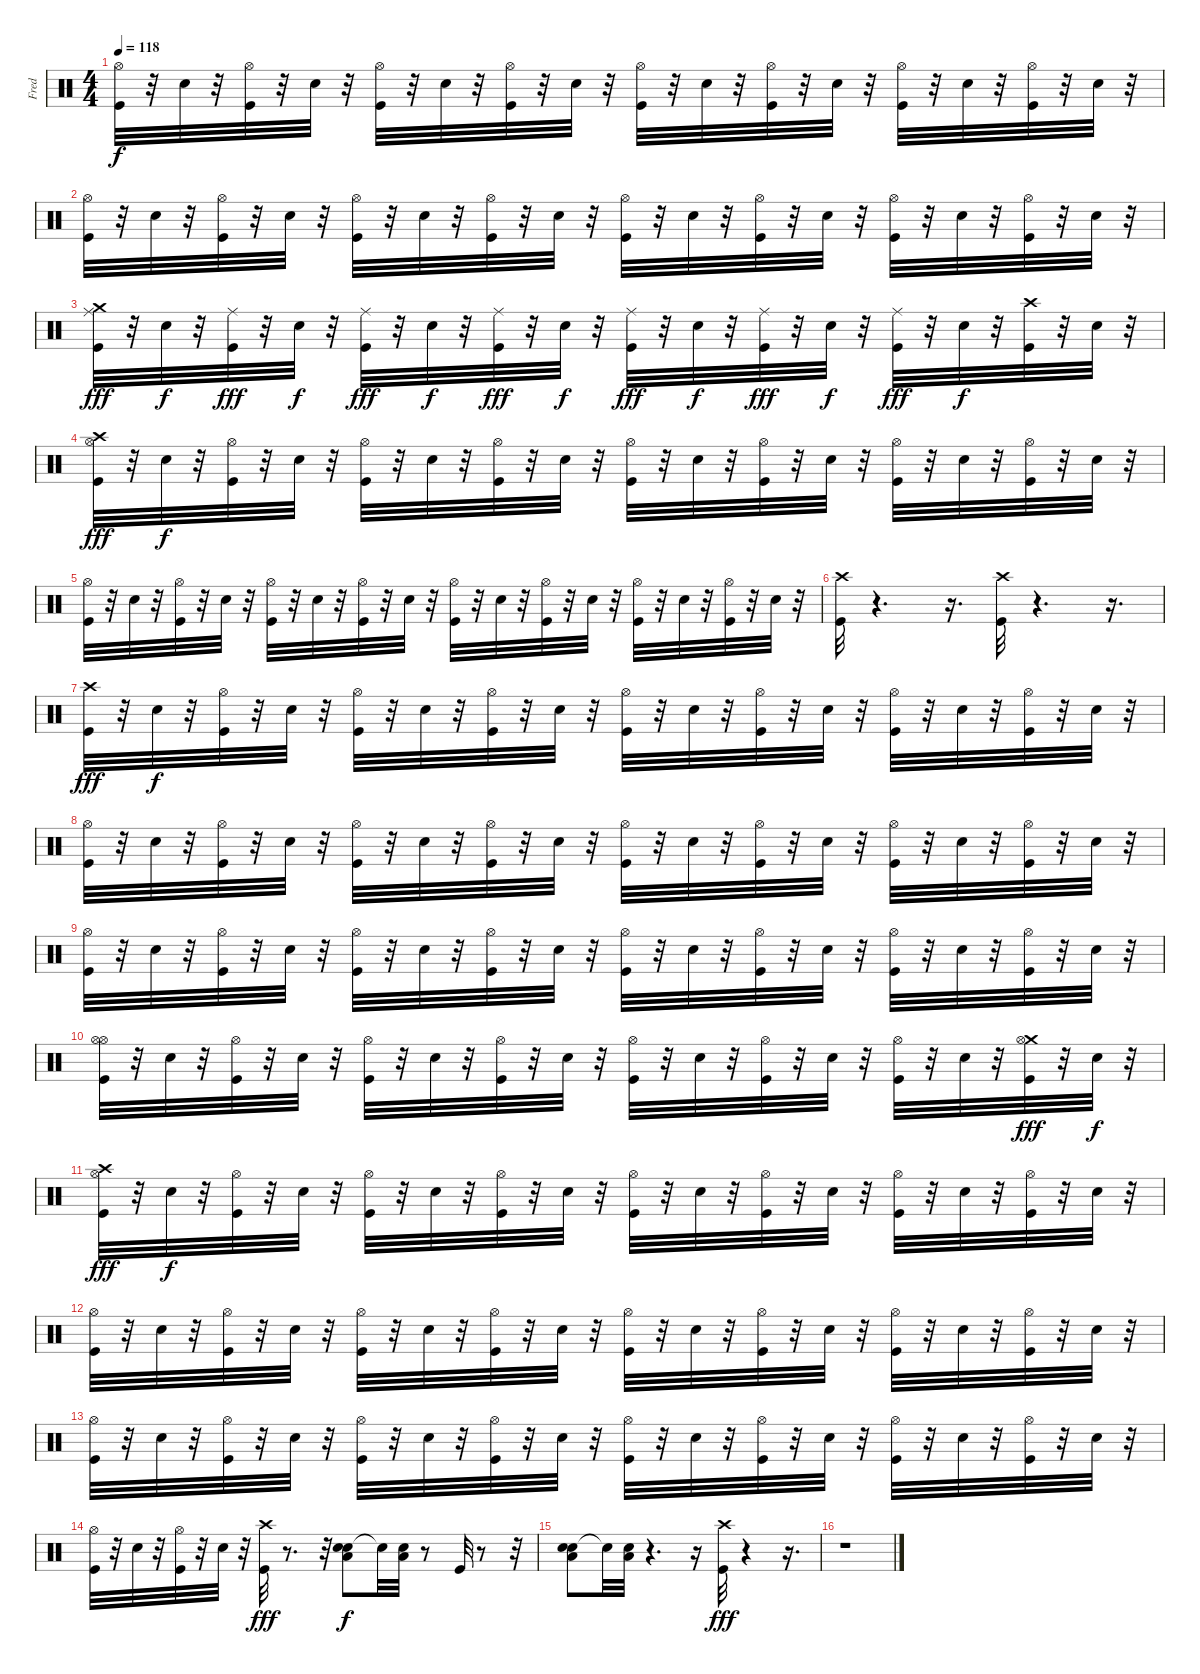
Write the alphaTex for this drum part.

\track ("Fred" "Fred") {instrument percussion}
\staff {score}
\articulation defaults
\ts (4 4)
\tempo 118
\clef neutral
\ks c
("Hi-Hat (open)" "Kick (hit)").32{dy f} r.32 "Electric Snare (hit)".32 r.32 ("Hi-Hat (open)" "Kick (hit)").32 r.32 "Electric Snare (hit)".32 r.32 ("Hi-Hat (open)" "Kick (hit)").32 r.32 "Electric Snare (hit)".32 r.32 ("Hi-Hat (open)" "Kick (hit)").32 r.32 "Electric Snare (hit)".32 r.32 ("Hi-Hat (open)" "Kick (hit)").32 r.32 "Electric Snare (hit)".32 r.32 ("Hi-Hat (open)" "Kick (hit)").32 r.32 "Electric Snare (hit)".32 r.32 ("Hi-Hat (open)" "Kick (hit)").32 r.32 "Electric Snare (hit)".32 r.32 ("Hi-Hat (open)" "Kick (hit)").32 r.32 "Electric Snare (hit)".32 r.32 |
("Hi-Hat (open)" "Kick (hit)").32 r.32 "Electric Snare (hit)".32 r.32 ("Hi-Hat (open)" "Kick (hit)").32 r.32 "Electric Snare (hit)".32 r.32 ("Hi-Hat (open)" "Kick (hit)").32 r.32 "Electric Snare (hit)".32 r.32 ("Hi-Hat (open)" "Kick (hit)").32 r.32 "Electric Snare (hit)".32 r.32 ("Hi-Hat (open)" "Kick (hit)").32 r.32 "Electric Snare (hit)".32 r.32 ("Hi-Hat (open)" "Kick (hit)").32 r.32 "Electric Snare (hit)".32 r.32 ("Hi-Hat (open)" "Kick (hit)").32 r.32 "Electric Snare (hit)".32 r.32 ("Hi-Hat (open)" "Kick (hit)").32 r.32 "Electric Snare (hit)".32 r.32 |
("Ride (middle)" "Crash medium (hit)" "Kick (hit)").32{dy fff} r.32 "Electric Snare (hit)".32{dy f} r.32 ("Ride (middle)" "Kick (hit)").32{dy fff} r.32 "Electric Snare (hit)".32{dy f} r.32 ("Ride (middle)" "Kick (hit)").32{dy fff} r.32 "Electric Snare (hit)".32{dy f} r.32 ("Ride (middle)" "Kick (hit)").32{dy fff} r.32 "Electric Snare (hit)".32{dy f} r.32 ("Ride (middle)" "Kick (hit)").32{dy fff} r.32 "Electric Snare (hit)".32{dy f} r.32 ("Ride (middle)" "Kick (hit)").32{dy fff} r.32 "Electric Snare (hit)".32{dy f} r.32 ("Ride (middle)" "Kick (hit)").32{dy fff} r.32 "Electric Snare (hit)".32{dy f} r.32 ("Crash high (hit)" "Kick (hit)").32 r.32 "Electric Snare (hit)".32 r.32 |
("Crash high (hit)" "Hi-Hat (open)" "Kick (hit)").32{dy fff} r.32 "Electric Snare (hit)".32{dy f} r.32 ("Hi-Hat (open)" "Kick (hit)").32 r.32 "Electric Snare (hit)".32 r.32 ("Hi-Hat (open)" "Kick (hit)").32 r.32 "Electric Snare (hit)".32 r.32 ("Hi-Hat (open)" "Kick (hit)").32 r.32 "Electric Snare (hit)".32 r.32 ("Hi-Hat (open)" "Kick (hit)").32 r.32 "Electric Snare (hit)".32 r.32 ("Hi-Hat (open)" "Kick (hit)").32 r.32 "Electric Snare (hit)".32 r.32 ("Hi-Hat (open)" "Kick (hit)").32 r.32 "Electric Snare (hit)".32 r.32 ("Hi-Hat (open)" "Kick (hit)").32 r.32 "Electric Snare (hit)".32 r.32 |
("Hi-Hat (open)" "Kick (hit)").32 r.32 "Electric Snare (hit)".32 r.32 ("Hi-Hat (open)" "Kick (hit)").32 r.32 "Electric Snare (hit)".32 r.32 ("Hi-Hat (open)" "Kick (hit)").32 r.32 "Electric Snare (hit)".32 r.32 ("Hi-Hat (open)" "Kick (hit)").32 r.32 "Electric Snare (hit)".32 r.32 ("Hi-Hat (open)" "Kick (hit)").32 r.32 "Electric Snare (hit)".32 r.32 ("Hi-Hat (open)" "Kick (hit)").32 r.32 "Electric Snare (hit)".32 r.32 ("Hi-Hat (open)" "Kick (hit)").32 r.32 "Electric Snare (hit)".32 r.32 ("Hi-Hat (open)" "Kick (hit)").32 r.32 "Electric Snare (hit)".32 r.32 |
("Crash high (hit)" "Kick (hit)").32 r.4{d} r.16{d} ("Crash high (hit)" "Kick (hit)").32 r.4{d} r.16{d} |
("Crash high (hit)" "Kick (hit)").32{dy fff} r.32 "Electric Snare (hit)".32{dy f} r.32 ("Hi-Hat (open)" "Kick (hit)").32 r.32 "Electric Snare (hit)".32 r.32 ("Hi-Hat (open)" "Kick (hit)").32 r.32 "Electric Snare (hit)".32 r.32 ("Hi-Hat (open)" "Kick (hit)").32 r.32 "Electric Snare (hit)".32 r.32 ("Hi-Hat (open)" "Kick (hit)").32 r.32 "Electric Snare (hit)".32 r.32 ("Hi-Hat (open)" "Kick (hit)").32 r.32 "Electric Snare (hit)".32 r.32 ("Hi-Hat (open)" "Kick (hit)").32 r.32 "Electric Snare (hit)".32 r.32 ("Hi-Hat (open)" "Kick (hit)").32 r.32 "Electric Snare (hit)".32 r.32 |
("Hi-Hat (open)" "Kick (hit)").32 r.32 "Electric Snare (hit)".32 r.32 ("Hi-Hat (open)" "Kick (hit)").32 r.32 "Electric Snare (hit)".32 r.32 ("Hi-Hat (open)" "Kick (hit)").32 r.32 "Electric Snare (hit)".32 r.32 ("Hi-Hat (open)" "Kick (hit)").32 r.32 "Electric Snare (hit)".32 r.32 ("Hi-Hat (open)" "Kick (hit)").32 r.32 "Electric Snare (hit)".32 r.32 ("Hi-Hat (open)" "Kick (hit)").32 r.32 "Electric Snare (hit)".32 r.32 ("Hi-Hat (open)" "Kick (hit)").32 r.32 "Electric Snare (hit)".32 r.32 ("Hi-Hat (open)" "Kick (hit)").32 r.32 "Electric Snare (hit)".32 r.32 |
("Hi-Hat (open)" "Kick (hit)").32 r.32 "Electric Snare (hit)".32 r.32 ("Hi-Hat (open)" "Kick (hit)").32 r.32 "Electric Snare (hit)".32 r.32 ("Hi-Hat (open)" "Kick (hit)").32 r.32 "Electric Snare (hit)".32 r.32 ("Hi-Hat (open)" "Kick (hit)").32 r.32 "Electric Snare (hit)".32 r.32 ("Hi-Hat (open)" "Kick (hit)").32 r.32 "Electric Snare (hit)".32 r.32 ("Hi-Hat (open)" "Kick (hit)").32 r.32 "Electric Snare (hit)".32 r.32 ("Hi-Hat (open)" "Kick (hit)").32 r.32 "Electric Snare (hit)".32 r.32 ("Hi-Hat (open)" "Kick (hit)").32 r.32 "Electric Snare (hit)".32 r.32 |
("Hi-Hat (open)" "Kick (hit)" "Hi-Hat (open)").32 r.32 "Electric Snare (hit)".32 r.32 ("Hi-Hat (open)" "Kick (hit)").32 r.32 "Electric Snare (hit)".32 r.32 ("Hi-Hat (open)" "Kick (hit)").32 r.32 "Electric Snare (hit)".32 r.32 ("Hi-Hat (open)" "Kick (hit)").32 r.32 "Electric Snare (hit)".32 r.32 ("Hi-Hat (open)" "Kick (hit)").32 r.32 "Electric Snare (hit)".32 r.32 ("Hi-Hat (open)" "Kick (hit)").32 r.32 "Electric Snare (hit)".32 r.32 ("Hi-Hat (open)" "Kick (hit)").32 r.32 "Electric Snare (hit)".32 r.32 ("Crash medium (hit)" "Hi-Hat (open)" "Kick (hit)").32{dy fff} r.32 "Electric Snare (hit)".32{dy f} r.32 |
("Crash high (hit)" "Hi-Hat (open)" "Kick (hit)").32{dy fff} r.32 "Electric Snare (hit)".32{dy f} r.32 ("Hi-Hat (open)" "Kick (hit)").32 r.32 "Electric Snare (hit)".32 r.32 ("Hi-Hat (open)" "Kick (hit)").32 r.32 "Electric Snare (hit)".32 r.32 ("Hi-Hat (open)" "Kick (hit)").32 r.32 "Electric Snare (hit)".32 r.32 ("Hi-Hat (open)" "Kick (hit)").32 r.32 "Electric Snare (hit)".32 r.32 ("Hi-Hat (open)" "Kick (hit)").32 r.32 "Electric Snare (hit)".32 r.32 ("Hi-Hat (open)" "Kick (hit)").32 r.32 "Electric Snare (hit)".32 r.32 ("Hi-Hat (open)" "Kick (hit)").32 r.32 "Electric Snare (hit)".32 r.32 |
("Hi-Hat (open)" "Kick (hit)").32 r.32 "Electric Snare (hit)".32 r.32 ("Hi-Hat (open)" "Kick (hit)").32 r.32 "Electric Snare (hit)".32 r.32 ("Hi-Hat (open)" "Kick (hit)").32 r.32 "Electric Snare (hit)".32 r.32 ("Hi-Hat (open)" "Kick (hit)").32 r.32 "Electric Snare (hit)".32 r.32 ("Hi-Hat (open)" "Kick (hit)").32 r.32 "Electric Snare (hit)".32 r.32 ("Hi-Hat (open)" "Kick (hit)").32 r.32 "Electric Snare (hit)".32 r.32 ("Hi-Hat (open)" "Kick (hit)").32 r.32 "Electric Snare (hit)".32 r.32 ("Hi-Hat (open)" "Kick (hit)").32 r.32 "Electric Snare (hit)".32 r.32 |
("Hi-Hat (open)" "Kick (hit)").32 r.32 "Electric Snare (hit)".32 r.32 ("Hi-Hat (open)" "Kick (hit)").32 r.32 "Electric Snare (hit)".32 r.32 ("Hi-Hat (open)" "Kick (hit)").32 r.32 "Electric Snare (hit)".32 r.32 ("Hi-Hat (open)" "Kick (hit)").32 r.32 "Electric Snare (hit)".32 r.32 ("Hi-Hat (open)" "Kick (hit)").32 r.32 "Electric Snare (hit)".32 r.32 ("Hi-Hat (open)" "Kick (hit)").32 r.32 "Electric Snare (hit)".32 r.32 ("Hi-Hat (open)" "Kick (hit)").32 r.32 "Electric Snare (hit)".32 r.32 ("Hi-Hat (open)" "Kick (hit)").32 r.32 "Electric Snare (hit)".32 r.32 |
("Hi-Hat (open)" "Kick (hit)").32 r.32 "Electric Snare (hit)".32 r.32 ("Hi-Hat (open)" "Kick (hit)").32 r.32 "Electric Snare (hit)".32 r.32 ("Crash high (hit)" "Kick (hit)").32{dy fff} r.8{d} r.32 ("Electric Snare (hit)" "Low Tom (hit)" "Electric Snare (hit)").8{dy f} "Snare (hit)"{t}.32 ("Electric Snare (hit)" "Low Tom (hit)").32 r.8 "Kick (hit)".32 r.8 r.32 |
("Electric Snare (hit)" "Electric Snare (hit)" "Low Tom (hit)").8 "Snare (hit)"{t}.32 ("Electric Snare (hit)" "Low Tom (hit)").32 r.4{d} r.16 ("Crash high (hit)" "Kick (hit)").32{dy fff} r.4 r.16{d} |
r.1
